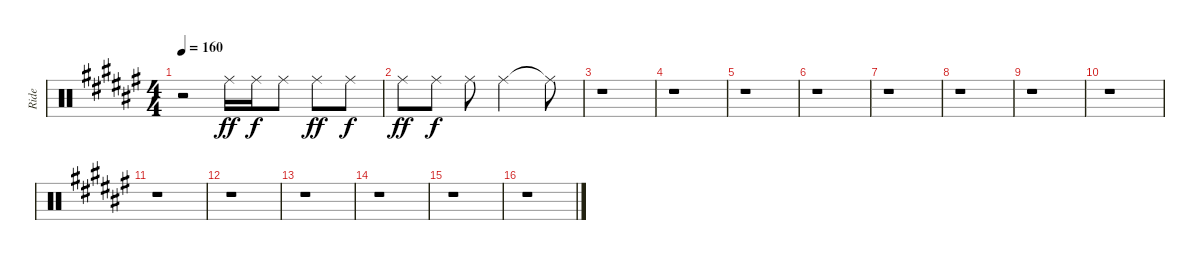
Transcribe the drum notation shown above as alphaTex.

\track ("Ride" "Ride") {instrument percussion}
\staff {score}
\articulation defaults
\ts (4 4)
\tempo 160
\clef neutral
\ks d#minor
r.2{dy ff} "Ride (middle)".16 "Ride (middle)".16{dy f} "Ride (middle)".8 "Ride (middle)".8{dy ff} "Ride (middle)".8{dy f} |
"Ride (middle)".8{dy ff} "Ride (middle)".8{dy f} "Ride (middle)".8 "Ride (middle)".2 "Ride (middle)"{t}.8 |
r.1 |
r.1 |
r.1 |
r.1 |
r.1 |
r.1 |
r.1 |
r.1 |
r.1 |
r.1 |
r.1 |
r.1 |
r.1 |
r.1
